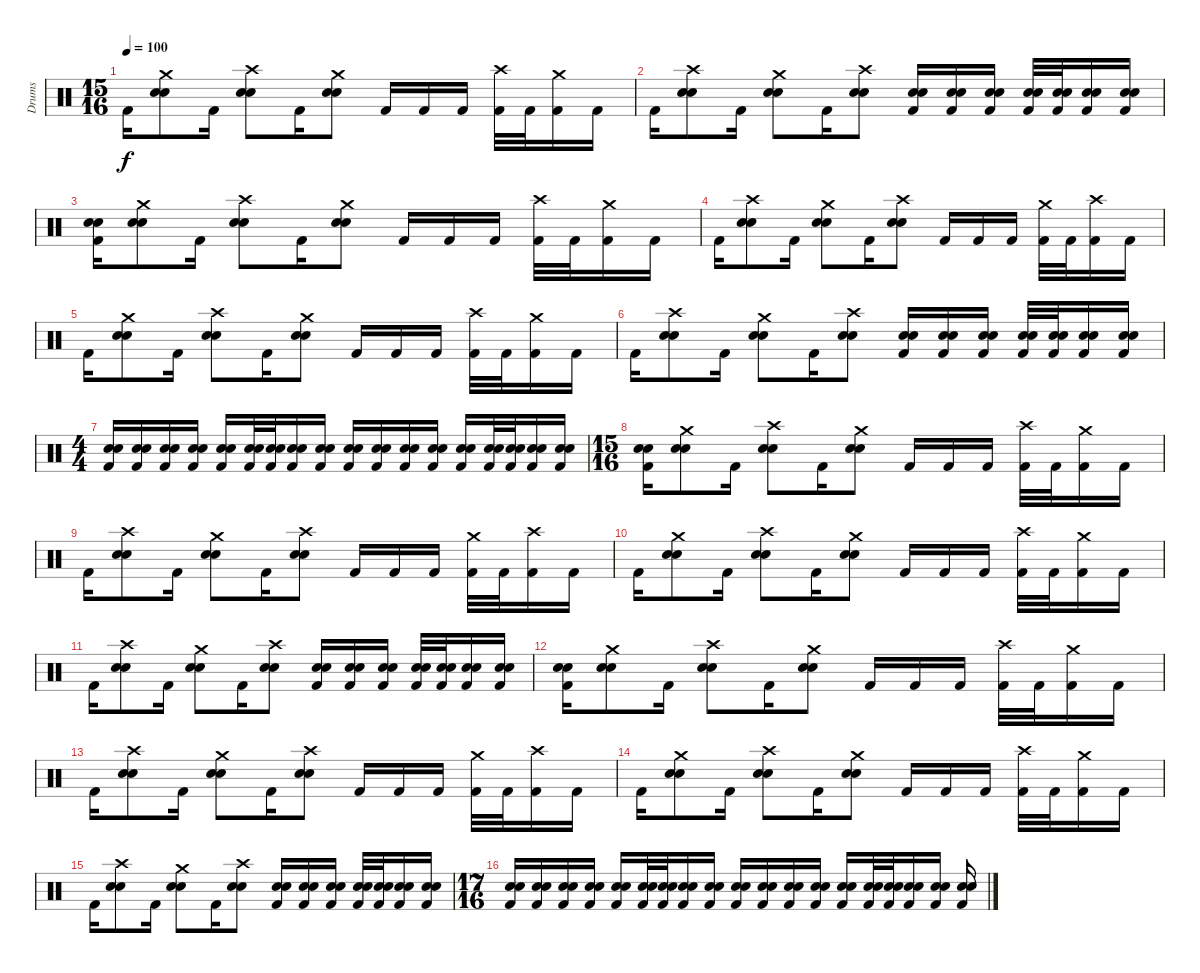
\track ("Drums" "Drums") {instrument percussion}
\staff {score}
\articulation defaults
\ts (15 16)
\tempo 100
\clef neutral
\ks c "Kick (hit) 2".16{dy f}
("Crash medium (hit)" "Snare (hit) 2" "Electric Snare (hit)").8 "Kick (hit) 2".16 ("Crash high (hit)" "Snare (hit) 2" "Electric Snare (hit)").8 "Kick (hit) 2".16 ("Crash medium (hit)" "Snare (hit) 2" "Electric Snare (hit)").8 "Kick (hit) 2".16 "Kick (hit) 2".16 "Kick (hit) 2".16 ("Crash high (hit)" "Kick (hit) 2").32 "Kick (hit) 2".32 ("Crash medium (hit)" "Kick (hit) 2").16 "Kick (hit) 2".16 |
"Kick (hit) 2".16 ("Crash high (hit)" "Snare (hit) 2" "Electric Snare (hit)").8 "Kick (hit) 2".16 ("Crash medium (hit)" "Snare (hit) 2" "Electric Snare (hit)").8 "Kick (hit) 2".16 ("Crash high (hit)" "Snare (hit) 2" "Electric Snare (hit)").8 ("Snare (hit) 2" "Electric Snare (hit)" "Kick (hit) 2").16 ("Snare (hit) 2" "Electric Snare (hit)" "Kick (hit) 2").16 ("Snare (hit) 2" "Electric Snare (hit)" "Kick (hit) 2").16 ("Snare (hit) 2" "Electric Snare (hit)" "Kick (hit) 2").32 ("Snare (hit) 2" "Electric Snare (hit)" "Kick (hit) 2").32 ("Snare (hit) 2" "Electric Snare (hit)" "Kick (hit) 2").16 ("Snare (hit) 2" "Electric Snare (hit)" "Kick (hit) 2").16 |
("Snare (hit) 2" "Electric Snare (hit)" "Kick (hit) 2").16 ("Crash medium (hit)" "Snare (hit) 2" "Electric Snare (hit)").8 "Kick (hit) 2".16 ("Crash high (hit)" "Snare (hit) 2" "Electric Snare (hit)").8 "Kick (hit) 2".16 ("Crash medium (hit)" "Snare (hit) 2" "Electric Snare (hit)").8 "Kick (hit) 2".16 "Kick (hit) 2".16 "Kick (hit) 2".16 ("Crash high (hit)" "Kick (hit) 2").32 "Kick (hit) 2".32 ("Crash medium (hit)" "Kick (hit) 2").16 "Kick (hit) 2".16 |
"Kick (hit) 2".16 ("Crash high (hit)" "Snare (hit) 2" "Electric Snare (hit)").8 "Kick (hit) 2".16 ("Crash medium (hit)" "Snare (hit) 2" "Electric Snare (hit)").8 "Kick (hit) 2".16 ("Crash high (hit)" "Snare (hit) 2" "Electric Snare (hit)").8 "Kick (hit) 2".16 "Kick (hit) 2".16 "Kick (hit) 2".16 ("Crash medium (hit)" "Kick (hit) 2").32 "Kick (hit) 2".32 ("Crash high (hit)" "Kick (hit) 2").16 "Kick (hit) 2".16 |
"Kick (hit) 2".16 ("Crash medium (hit)" "Snare (hit) 2" "Electric Snare (hit)").8 "Kick (hit) 2".16 ("Crash high (hit)" "Snare (hit) 2" "Electric Snare (hit)").8 "Kick (hit) 2".16 ("Crash medium (hit)" "Snare (hit) 2" "Electric Snare (hit)").8 "Kick (hit) 2".16 "Kick (hit) 2".16 "Kick (hit) 2".16 ("Crash high (hit)" "Kick (hit) 2").32 "Kick (hit) 2".32 ("Crash medium (hit)" "Kick (hit) 2").16 "Kick (hit) 2".16 |
"Kick (hit) 2".16 ("Crash high (hit)" "Snare (hit) 2" "Electric Snare (hit)").8 "Kick (hit) 2".16 ("Crash medium (hit)" "Snare (hit) 2" "Electric Snare (hit)").8 "Kick (hit) 2".16 ("Crash high (hit)" "Snare (hit) 2" "Electric Snare (hit)").8 ("Snare (hit) 2" "Electric Snare (hit)" "Kick (hit) 2").16 ("Snare (hit) 2" "Electric Snare (hit)" "Kick (hit) 2").16 ("Snare (hit) 2" "Electric Snare (hit)" "Kick (hit) 2").16 ("Snare (hit) 2" "Electric Snare (hit)" "Kick (hit) 2").32 ("Snare (hit) 2" "Electric Snare (hit)" "Kick (hit) 2").32 ("Snare (hit) 2" "Electric Snare (hit)" "Kick (hit) 2").16 ("Snare (hit) 2" "Electric Snare (hit)" "Kick (hit) 2").16 |
\ts (4 4)
("Snare (hit) 2" "Electric Snare (hit)" "Kick (hit) 2").16 ("Snare (hit) 2" "Electric Snare (hit)" "Kick (hit) 2").16 ("Snare (hit) 2" "Electric Snare (hit)" "Kick (hit) 2").16 ("Snare (hit) 2" "Electric Snare (hit)" "Kick (hit) 2").16 ("Snare (hit) 2" "Electric Snare (hit)" "Kick (hit) 2").16 ("Snare (hit) 2" "Electric Snare (hit)" "Kick (hit) 2").32 ("Snare (hit) 2" "Electric Snare (hit)" "Kick (hit) 2").32 ("Snare (hit) 2" "Electric Snare (hit)" "Kick (hit) 2").16 ("Snare (hit) 2" "Electric Snare (hit)" "Kick (hit) 2").16 ("Snare (hit) 2" "Electric Snare (hit)" "Kick (hit) 2").16 ("Snare (hit) 2" "Electric Snare (hit)" "Kick (hit) 2").16 ("Snare (hit) 2" "Electric Snare (hit)" "Kick (hit) 2").16 ("Snare (hit) 2" "Electric Snare (hit)" "Kick (hit) 2").16 ("Snare (hit) 2" "Electric Snare (hit)" "Kick (hit) 2").16 ("Snare (hit) 2" "Electric Snare (hit)" "Kick (hit) 2").32 ("Snare (hit) 2" "Electric Snare (hit)" "Kick (hit) 2").32 ("Snare (hit) 2" "Electric Snare (hit)" "Kick (hit) 2").16 ("Snare (hit) 2" "Electric Snare (hit)" "Kick (hit) 2").16 |
\ts (15 16)
("Snare (hit) 2" "Electric Snare (hit)" "Kick (hit) 2").16 ("Crash medium (hit)" "Snare (hit) 2" "Electric Snare (hit)").8 "Kick (hit) 2".16 ("Crash high (hit)" "Snare (hit) 2" "Electric Snare (hit)").8 "Kick (hit) 2".16 ("Crash medium (hit)" "Snare (hit) 2" "Electric Snare (hit)").8 "Kick (hit) 2".16 "Kick (hit) 2".16 "Kick (hit) 2".16 ("Crash high (hit)" "Kick (hit) 2").32 "Kick (hit) 2".32 ("Crash medium (hit)" "Kick (hit) 2").16 "Kick (hit) 2".16 |
"Kick (hit) 2".16 ("Crash high (hit)" "Snare (hit) 2" "Electric Snare (hit)").8 "Kick (hit) 2".16 ("Crash medium (hit)" "Snare (hit) 2" "Electric Snare (hit)").8 "Kick (hit) 2".16 ("Crash high (hit)" "Snare (hit) 2" "Electric Snare (hit)").8 "Kick (hit) 2".16 "Kick (hit) 2".16 "Kick (hit) 2".16 ("Crash medium (hit)" "Kick (hit) 2").32 "Kick (hit) 2".32 ("Crash high (hit)" "Kick (hit) 2").16 "Kick (hit) 2".16 |
"Kick (hit) 2".16 ("Crash medium (hit)" "Snare (hit) 2" "Electric Snare (hit)").8 "Kick (hit) 2".16 ("Crash high (hit)" "Snare (hit) 2" "Electric Snare (hit)").8 "Kick (hit) 2".16 ("Crash medium (hit)" "Snare (hit) 2" "Electric Snare (hit)").8 "Kick (hit) 2".16 "Kick (hit) 2".16 "Kick (hit) 2".16 ("Crash high (hit)" "Kick (hit) 2").32 "Kick (hit) 2".32 ("Crash medium (hit)" "Kick (hit) 2").16 "Kick (hit) 2".16 |
"Kick (hit) 2".16 ("Crash high (hit)" "Snare (hit) 2" "Electric Snare (hit)").8 "Kick (hit) 2".16 ("Crash medium (hit)" "Snare (hit) 2" "Electric Snare (hit)").8 "Kick (hit) 2".16 ("Crash high (hit)" "Snare (hit) 2" "Electric Snare (hit)").8 ("Snare (hit) 2" "Electric Snare (hit)" "Kick (hit) 2").16 ("Snare (hit) 2" "Electric Snare (hit)" "Kick (hit) 2").16 ("Snare (hit) 2" "Electric Snare (hit)" "Kick (hit) 2").16 ("Snare (hit) 2" "Electric Snare (hit)" "Kick (hit) 2").32 ("Snare (hit) 2" "Electric Snare (hit)" "Kick (hit) 2").32 ("Snare (hit) 2" "Electric Snare (hit)" "Kick (hit) 2").16 ("Snare (hit) 2" "Electric Snare (hit)" "Kick (hit) 2").16 |
("Snare (hit) 2" "Electric Snare (hit)" "Kick (hit) 2").16 ("Crash medium (hit)" "Snare (hit) 2" "Electric Snare (hit)").8 "Kick (hit) 2".16 ("Crash high (hit)" "Snare (hit) 2" "Electric Snare (hit)").8 "Kick (hit) 2".16 ("Crash medium (hit)" "Snare (hit) 2" "Electric Snare (hit)").8 "Kick (hit) 2".16 "Kick (hit) 2".16 "Kick (hit) 2".16 ("Crash high (hit)" "Kick (hit) 2").32 "Kick (hit) 2".32 ("Crash medium (hit)" "Kick (hit) 2").16 "Kick (hit) 2".16 |
"Kick (hit) 2".16 ("Crash high (hit)" "Snare (hit) 2" "Electric Snare (hit)").8 "Kick (hit) 2".16 ("Crash medium (hit)" "Snare (hit) 2" "Electric Snare (hit)").8 "Kick (hit) 2".16 ("Crash high (hit)" "Snare (hit) 2" "Electric Snare (hit)").8 "Kick (hit) 2".16 "Kick (hit) 2".16 "Kick (hit) 2".16 ("Crash medium (hit)" "Kick (hit) 2").32 "Kick (hit) 2".32 ("Crash high (hit)" "Kick (hit) 2").16 "Kick (hit) 2".16 |
"Kick (hit) 2".16 ("Crash medium (hit)" "Snare (hit) 2" "Electric Snare (hit)").8 "Kick (hit) 2".16 ("Crash high (hit)" "Snare (hit) 2" "Electric Snare (hit)").8 "Kick (hit) 2".16 ("Crash medium (hit)" "Snare (hit) 2" "Electric Snare (hit)").8 "Kick (hit) 2".16 "Kick (hit) 2".16 "Kick (hit) 2".16 ("Crash high (hit)" "Kick (hit) 2").32 "Kick (hit) 2".32 ("Crash medium (hit)" "Kick (hit) 2").16 "Kick (hit) 2".16 |
"Kick (hit) 2".16 ("Crash high (hit)" "Snare (hit) 2" "Electric Snare (hit)").8 "Kick (hit) 2".16 ("Crash medium (hit)" "Snare (hit) 2" "Electric Snare (hit)").8 "Kick (hit) 2".16 ("Crash high (hit)" "Snare (hit) 2" "Electric Snare (hit)").8 ("Snare (hit) 2" "Electric Snare (hit)" "Kick (hit) 2").16 ("Snare (hit) 2" "Electric Snare (hit)" "Kick (hit) 2").16 ("Snare (hit) 2" "Electric Snare (hit)" "Kick (hit) 2").16 ("Snare (hit) 2" "Electric Snare (hit)" "Kick (hit) 2").32 ("Snare (hit) 2" "Electric Snare (hit)" "Kick (hit) 2").32 ("Snare (hit) 2" "Electric Snare (hit)" "Kick (hit) 2").16 ("Snare (hit) 2" "Electric Snare (hit)" "Kick (hit) 2").16 |
\ts (17 16)
("Snare (hit) 2" "Electric Snare (hit)" "Kick (hit) 2").16 ("Snare (hit) 2" "Electric Snare (hit)" "Kick (hit) 2").16 ("Snare (hit) 2" "Electric Snare (hit)" "Kick (hit) 2").16 ("Snare (hit) 2" "Electric Snare (hit)" "Kick (hit) 2").16 ("Snare (hit) 2" "Electric Snare (hit)" "Kick (hit) 2").16 ("Snare (hit) 2" "Electric Snare (hit)" "Kick (hit) 2").32 ("Snare (hit) 2" "Electric Snare (hit)" "Kick (hit) 2").32 ("Snare (hit) 2" "Electric Snare (hit)" "Kick (hit) 2").16 ("Snare (hit) 2" "Electric Snare (hit)" "Kick (hit) 2").16 ("Snare (hit) 2" "Electric Snare (hit)" "Kick (hit) 2").16 ("Snare (hit) 2" "Electric Snare (hit)" "Kick (hit) 2").16 ("Snare (hit) 2" "Electric Snare (hit)" "Kick (hit) 2").16 ("Snare (hit) 2" "Electric Snare (hit)" "Kick (hit) 2").16 ("Snare (hit) 2" "Electric Snare (hit)" "Kick (hit) 2").16 ("Snare (hit) 2" "Electric Snare (hit)" "Kick (hit) 2").32 ("Snare (hit) 2" "Electric Snare (hit)" "Kick (hit) 2").32 ("Snare (hit) 2" "Electric Snare (hit)" "Kick (hit) 2").16 ("Snare (hit) 2" "Electric Snare (hit)" "Kick (hit) 2").16 ("Snare (hit) 2" "Electric Snare (hit)" "Kick (hit) 2").16
